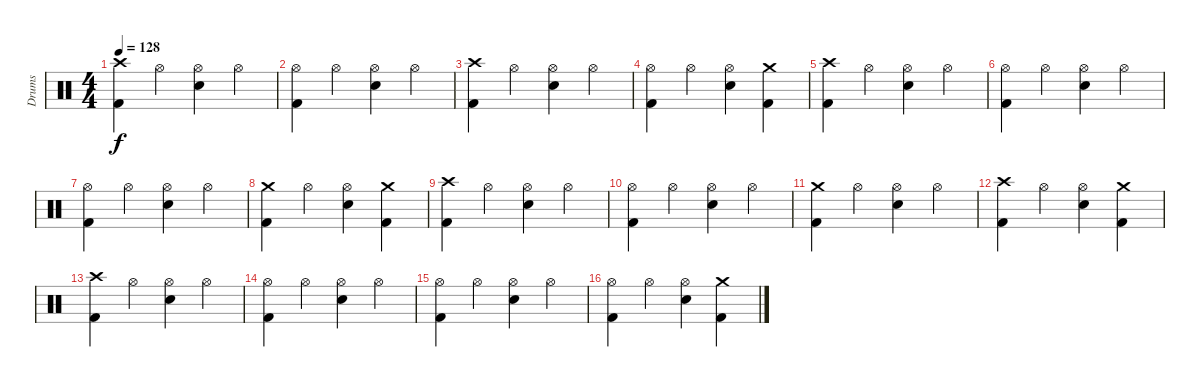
\track ("Drums" "Drums") {instrument percussion}
\staff {score}
\articulation defaults
\ts (4 4)
\tempo 128
\clef neutral
\ks c
("Crash high (hit)" "Kick (hit) 2").4{dy f} "Hi-Hat (open)".4 ("Hi-Hat (open)" "Electric Snare (hit)").4 "Hi-Hat (open)".4 |
("Hi-Hat (open)" "Kick (hit) 2").4 "Hi-Hat (open)".4 ("Hi-Hat (open)" "Electric Snare (hit)").4 "Hi-Hat (open)".4 |
("Crash high (hit)" "Kick (hit) 2").4 "Hi-Hat (open)".4 ("Hi-Hat (open)" "Electric Snare (hit)").4 "Hi-Hat (open)".4 |
("Hi-Hat (open)" "Kick (hit) 2").4 "Hi-Hat (open)".4 ("Hi-Hat (open)" "Electric Snare (hit)").4 ("Crash medium (hit)" "Kick (hit) 2").4 |
("Crash high (hit)" "Kick (hit) 2").4 "Hi-Hat (open)".4 ("Hi-Hat (open)" "Electric Snare (hit)").4 "Hi-Hat (open)".4 |
("Hi-Hat (open)" "Kick (hit) 2").4 "Hi-Hat (open)".4 ("Hi-Hat (open)" "Electric Snare (hit)").4 "Hi-Hat (open)".4 |
("Hi-Hat (open)" "Kick (hit) 2").4 "Hi-Hat (open)".4 ("Hi-Hat (open)" "Electric Snare (hit)").4 "Hi-Hat (open)".4 |
("Crash medium (hit)" "Kick (hit) 2").4 "Hi-Hat (open)".4 ("Hi-Hat (open)" "Electric Snare (hit)").4 ("Crash medium (hit)" "Kick (hit) 2").4 |
("Crash high (hit)" "Kick (hit) 2").4 "Hi-Hat (open)".4 ("Hi-Hat (open)" "Electric Snare (hit)").4 "Hi-Hat (open)".4 |
("Hi-Hat (open)" "Kick (hit) 2").4 "Hi-Hat (open)".4 ("Hi-Hat (open)" "Electric Snare (hit)").4 "Hi-Hat (open)".4 |
("Crash medium (hit)" "Kick (hit) 2").4 "Hi-Hat (open)".4 ("Hi-Hat (open)" "Electric Snare (hit)").4 "Hi-Hat (open)".4 |
("Crash high (hit)" "Kick (hit) 2").4 "Hi-Hat (open)".4 ("Hi-Hat (open)" "Electric Snare (hit)").4 ("Crash medium (hit)" "Kick (hit) 2").4 |
("Crash high (hit)" "Kick (hit) 2").4 "Hi-Hat (open)".4 ("Hi-Hat (open)" "Electric Snare (hit)").4 "Hi-Hat (open)".4 |
("Hi-Hat (open)" "Kick (hit) 2").4 "Hi-Hat (open)".4 ("Hi-Hat (open)" "Electric Snare (hit)").4 "Hi-Hat (open)".4 |
("Hi-Hat (open)" "Kick (hit) 2").4 "Hi-Hat (open)".4 ("Hi-Hat (open)" "Electric Snare (hit)").4 "Hi-Hat (open)".4 |
("Hi-Hat (open)" "Kick (hit) 2").4 "Hi-Hat (open)".4 ("Hi-Hat (open)" "Electric Snare (hit)").4 ("Crash medium (hit)" "Kick (hit) 2").4
